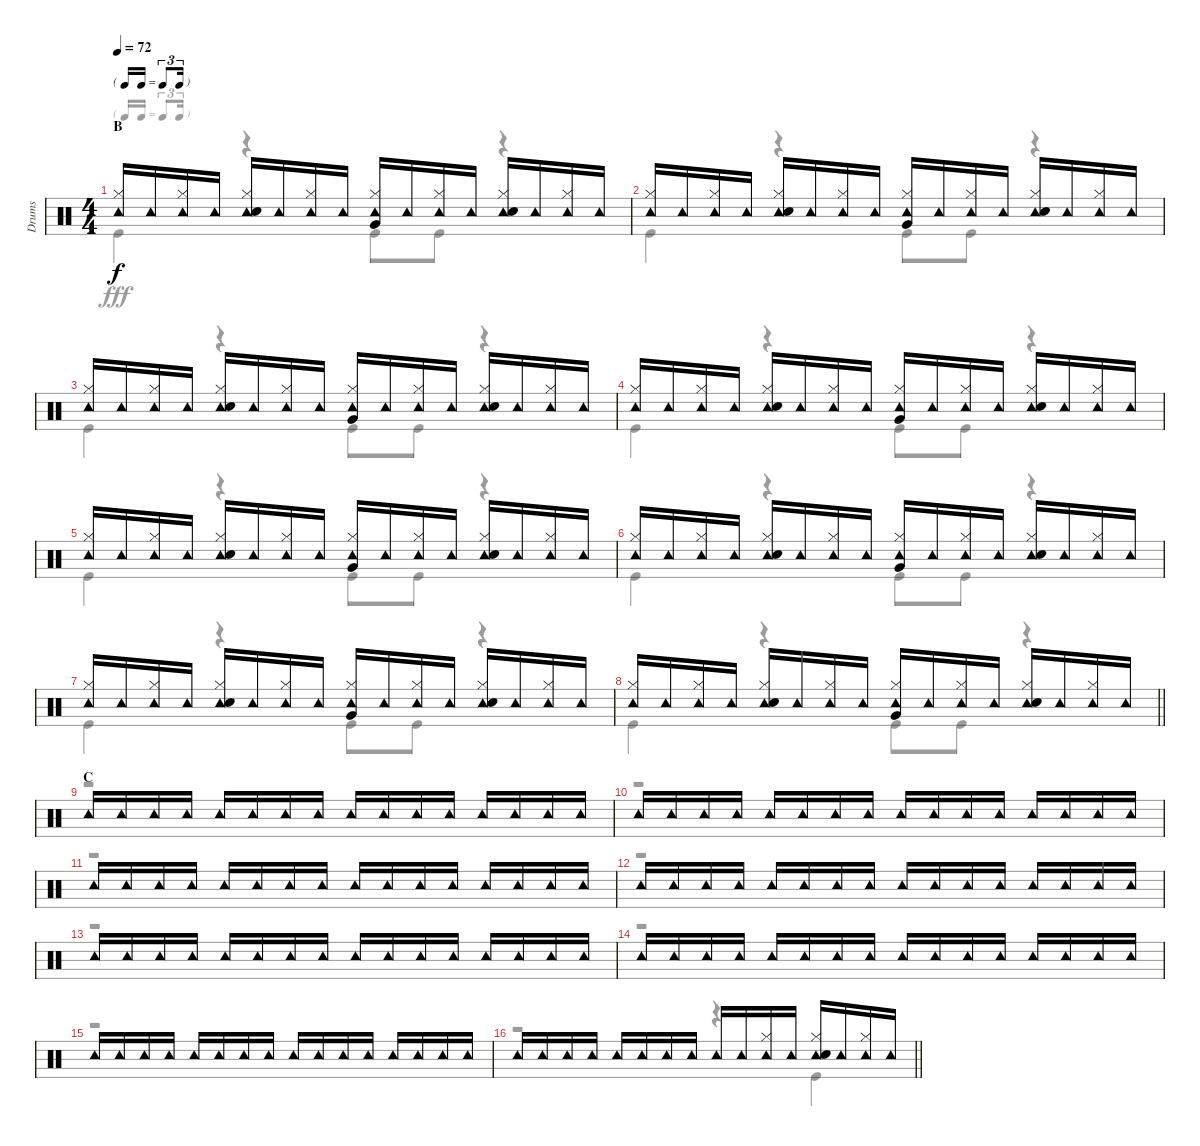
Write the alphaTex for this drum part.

\track ("Drums" "Drums") {instrument percussion}
\staff {score}
\articulation defaults
\voice
\ts (4 4)
\tf triplet16th
\section ("" "B")
\tempo 72
\clef neutral
\ks c
("Tambourine (hit)" "Hi-Hat (closed)").16{dy f} "Tambourine (hit)".16 ("Tambourine (hit)" "Hi-Hat (closed)").16 "Tambourine (hit)".16 ("Tambourine (hit)" "Hi-Hat (closed)" "Snare (hit) 2").16 "Tambourine (hit)".16 ("Tambourine (hit)" "Hi-Hat (closed)").16 "Tambourine (hit)".16 ("Tambourine (hit)" "Hi-Hat (closed)" "Very Low Tom (hit)").16 "Tambourine (hit)".16 ("Tambourine (hit)" "Hi-Hat (closed)").16 "Tambourine (hit)".16 ("Tambourine (hit)" "Hi-Hat (closed)" "Snare (hit) 2").16 "Tambourine (hit)".16 ("Tambourine (hit)" "Hi-Hat (closed)").16 "Tambourine (hit)".16 |
("Tambourine (hit)" "Hi-Hat (closed)").16 "Tambourine (hit)".16 ("Tambourine (hit)" "Hi-Hat (closed)").16 "Tambourine (hit)".16 ("Tambourine (hit)" "Hi-Hat (closed)" "Snare (hit) 2").16 "Tambourine (hit)".16 ("Tambourine (hit)" "Hi-Hat (closed)").16 "Tambourine (hit)".16 ("Tambourine (hit)" "Hi-Hat (closed)" "Very Low Tom (hit)").16 "Tambourine (hit)".16 ("Tambourine (hit)" "Hi-Hat (closed)").16 "Tambourine (hit)".16 ("Tambourine (hit)" "Hi-Hat (closed)" "Snare (hit) 2").16 "Tambourine (hit)".16 ("Tambourine (hit)" "Hi-Hat (closed)").16 "Tambourine (hit)".16 |
("Tambourine (hit)" "Hi-Hat (closed)").16 "Tambourine (hit)".16 ("Tambourine (hit)" "Hi-Hat (closed)").16 "Tambourine (hit)".16 ("Tambourine (hit)" "Hi-Hat (closed)" "Snare (hit) 2").16 "Tambourine (hit)".16 ("Tambourine (hit)" "Hi-Hat (closed)").16 "Tambourine (hit)".16 ("Tambourine (hit)" "Hi-Hat (closed)" "Very Low Tom (hit)").16 "Tambourine (hit)".16 ("Tambourine (hit)" "Hi-Hat (closed)").16 "Tambourine (hit)".16 ("Tambourine (hit)" "Hi-Hat (closed)" "Snare (hit) 2").16 "Tambourine (hit)".16 ("Tambourine (hit)" "Hi-Hat (closed)").16 "Tambourine (hit)".16 |
("Tambourine (hit)" "Hi-Hat (closed)").16 "Tambourine (hit)".16 ("Tambourine (hit)" "Hi-Hat (closed)").16 "Tambourine (hit)".16 ("Tambourine (hit)" "Hi-Hat (closed)" "Snare (hit) 2").16 "Tambourine (hit)".16 ("Tambourine (hit)" "Hi-Hat (closed)").16 "Tambourine (hit)".16 ("Tambourine (hit)" "Hi-Hat (closed)" "Very Low Tom (hit)").16 "Tambourine (hit)".16 ("Tambourine (hit)" "Hi-Hat (closed)").16 "Tambourine (hit)".16 ("Tambourine (hit)" "Hi-Hat (closed)" "Snare (hit) 2").16 "Tambourine (hit)".16 ("Tambourine (hit)" "Hi-Hat (closed)").16 "Tambourine (hit)".16 |
("Tambourine (hit)" "Hi-Hat (closed)").16 "Tambourine (hit)".16 ("Tambourine (hit)" "Hi-Hat (closed)").16 "Tambourine (hit)".16 ("Tambourine (hit)" "Hi-Hat (closed)" "Snare (hit) 2").16 "Tambourine (hit)".16 ("Tambourine (hit)" "Hi-Hat (closed)").16 "Tambourine (hit)".16 ("Tambourine (hit)" "Hi-Hat (closed)" "Very Low Tom (hit)").16 "Tambourine (hit)".16 ("Tambourine (hit)" "Hi-Hat (closed)").16 "Tambourine (hit)".16 ("Tambourine (hit)" "Hi-Hat (closed)" "Snare (hit) 2").16 "Tambourine (hit)".16 ("Tambourine (hit)" "Hi-Hat (closed)").16 "Tambourine (hit)".16 |
("Tambourine (hit)" "Hi-Hat (closed)").16 "Tambourine (hit)".16 ("Tambourine (hit)" "Hi-Hat (closed)").16 "Tambourine (hit)".16 ("Tambourine (hit)" "Hi-Hat (closed)" "Snare (hit) 2").16 "Tambourine (hit)".16 ("Tambourine (hit)" "Hi-Hat (closed)").16 "Tambourine (hit)".16 ("Tambourine (hit)" "Hi-Hat (closed)" "Very Low Tom (hit)").16 "Tambourine (hit)".16 ("Tambourine (hit)" "Hi-Hat (closed)").16 "Tambourine (hit)".16 ("Tambourine (hit)" "Hi-Hat (closed)" "Snare (hit) 2").16 "Tambourine (hit)".16 ("Tambourine (hit)" "Hi-Hat (closed)").16 "Tambourine (hit)".16 |
("Tambourine (hit)" "Hi-Hat (closed)").16 "Tambourine (hit)".16 ("Tambourine (hit)" "Hi-Hat (closed)").16 "Tambourine (hit)".16 ("Tambourine (hit)" "Hi-Hat (closed)" "Snare (hit) 2").16 "Tambourine (hit)".16 ("Tambourine (hit)" "Hi-Hat (closed)").16 "Tambourine (hit)".16 ("Tambourine (hit)" "Hi-Hat (closed)" "Very Low Tom (hit)").16 "Tambourine (hit)".16 ("Tambourine (hit)" "Hi-Hat (closed)").16 "Tambourine (hit)".16 ("Tambourine (hit)" "Hi-Hat (closed)" "Snare (hit) 2").16 "Tambourine (hit)".16 ("Tambourine (hit)" "Hi-Hat (closed)").16 "Tambourine (hit)".16 |
\barLineRight lightlight
("Tambourine (hit)" "Hi-Hat (closed)").16 "Tambourine (hit)".16 ("Tambourine (hit)" "Hi-Hat (closed)").16 "Tambourine (hit)".16 ("Tambourine (hit)" "Hi-Hat (closed)" "Snare (hit) 2").16 "Tambourine (hit)".16 ("Tambourine (hit)" "Hi-Hat (closed)").16 "Tambourine (hit)".16 ("Tambourine (hit)" "Hi-Hat (closed)" "Very Low Tom (hit)").16 "Tambourine (hit)".16 ("Tambourine (hit)" "Hi-Hat (closed)").16 "Tambourine (hit)".16 ("Tambourine (hit)" "Hi-Hat (closed)" "Snare (hit) 2").16 "Tambourine (hit)".16 ("Tambourine (hit)" "Hi-Hat (closed)").16 "Tambourine (hit)".16 |
\section ("" "C")
"Tambourine (hit)".16 "Tambourine (hit)".16 "Tambourine (hit)".16 "Tambourine (hit)".16 "Tambourine (hit)".16 "Tambourine (hit)".16 "Tambourine (hit)".16 "Tambourine (hit)".16 "Tambourine (hit)".16 "Tambourine (hit)".16 "Tambourine (hit)".16 "Tambourine (hit)".16 "Tambourine (hit)".16 "Tambourine (hit)".16 "Tambourine (hit)".16 "Tambourine (hit)".16 |
"Tambourine (hit)".16 "Tambourine (hit)".16 "Tambourine (hit)".16 "Tambourine (hit)".16 "Tambourine (hit)".16 "Tambourine (hit)".16 "Tambourine (hit)".16 "Tambourine (hit)".16 "Tambourine (hit)".16 "Tambourine (hit)".16 "Tambourine (hit)".16 "Tambourine (hit)".16 "Tambourine (hit)".16 "Tambourine (hit)".16 "Tambourine (hit)".16 "Tambourine (hit)".16 |
"Tambourine (hit)".16 "Tambourine (hit)".16 "Tambourine (hit)".16 "Tambourine (hit)".16 "Tambourine (hit)".16 "Tambourine (hit)".16 "Tambourine (hit)".16 "Tambourine (hit)".16 "Tambourine (hit)".16 "Tambourine (hit)".16 "Tambourine (hit)".16 "Tambourine (hit)".16 "Tambourine (hit)".16 "Tambourine (hit)".16 "Tambourine (hit)".16 "Tambourine (hit)".16 |
"Tambourine (hit)".16 "Tambourine (hit)".16 "Tambourine (hit)".16 "Tambourine (hit)".16 "Tambourine (hit)".16 "Tambourine (hit)".16 "Tambourine (hit)".16 "Tambourine (hit)".16 "Tambourine (hit)".16 "Tambourine (hit)".16 "Tambourine (hit)".16 "Tambourine (hit)".16 "Tambourine (hit)".16 "Tambourine (hit)".16 "Tambourine (hit)".16 "Tambourine (hit)".16 |
"Tambourine (hit)".16 "Tambourine (hit)".16 "Tambourine (hit)".16 "Tambourine (hit)".16 "Tambourine (hit)".16 "Tambourine (hit)".16 "Tambourine (hit)".16 "Tambourine (hit)".16 "Tambourine (hit)".16 "Tambourine (hit)".16 "Tambourine (hit)".16 "Tambourine (hit)".16 "Tambourine (hit)".16 "Tambourine (hit)".16 "Tambourine (hit)".16 "Tambourine (hit)".16 |
"Tambourine (hit)".16 "Tambourine (hit)".16 "Tambourine (hit)".16 "Tambourine (hit)".16 "Tambourine (hit)".16 "Tambourine (hit)".16 "Tambourine (hit)".16 "Tambourine (hit)".16 "Tambourine (hit)".16 "Tambourine (hit)".16 "Tambourine (hit)".16 "Tambourine (hit)".16 "Tambourine (hit)".16 "Tambourine (hit)".16 "Tambourine (hit)".16 "Tambourine (hit)".16 |
"Tambourine (hit)".16 "Tambourine (hit)".16 "Tambourine (hit)".16 "Tambourine (hit)".16 "Tambourine (hit)".16 "Tambourine (hit)".16 "Tambourine (hit)".16 "Tambourine (hit)".16 "Tambourine (hit)".16 "Tambourine (hit)".16 "Tambourine (hit)".16 "Tambourine (hit)".16 "Tambourine (hit)".16 "Tambourine (hit)".16 "Tambourine (hit)".16 "Tambourine (hit)".16 |
\barLineRight lightlight "Tambourine (hit)".16 "Tambourine (hit)".16 "Tambourine (hit)".16 "Tambourine (hit)".16 "Tambourine (hit)".16 "Tambourine (hit)".16 "Tambourine (hit)".16 "Tambourine (hit)".16 "Tambourine (hit)".16 "Tambourine (hit)".16
("Tambourine (hit)" "Hi-Hat (closed)").16 "Tambourine (hit)".16 ("Tambourine (hit)" "Snare (hit) 2" "Hi-Hat (closed)").16 "Tambourine (hit)".16 ("Tambourine (hit)" "Hi-Hat (closed)").16 "Tambourine (hit)".16
\voice
\clef neutral
\ottava regular
\simile none
\ks c "Kick (hit)".4{dy fff}
r.4 "Kick (hit)".8 "Kick (hit)".8 r.4 |
"Kick (hit)".4 r.4 "Kick (hit)".8 "Kick (hit)".8 r.4 |
"Kick (hit)".4 r.4 "Kick (hit)".8 "Kick (hit)".8 r.4 |
"Kick (hit)".4 r.4 "Kick (hit)".8 "Kick (hit)".8 r.4 |
"Kick (hit)".4 r.4 "Kick (hit)".8 "Kick (hit)".8 r.4 |
"Kick (hit)".4 r.4 "Kick (hit)".8 "Kick (hit)".8 r.4 |
"Kick (hit)".4 r.4 "Kick (hit)".8 "Kick (hit)".8 r.4 |
\barLineRight lightlight "Kick (hit)".4
r.4 "Kick (hit)".8 "Kick (hit)".8 r.4 |
r.1 |
r.1 |
r.1 |
r.1 |
r.1 |
r.1 |
r.1 |
\barLineRight lightlight
r.2 r.4 "Kick (hit)".4
